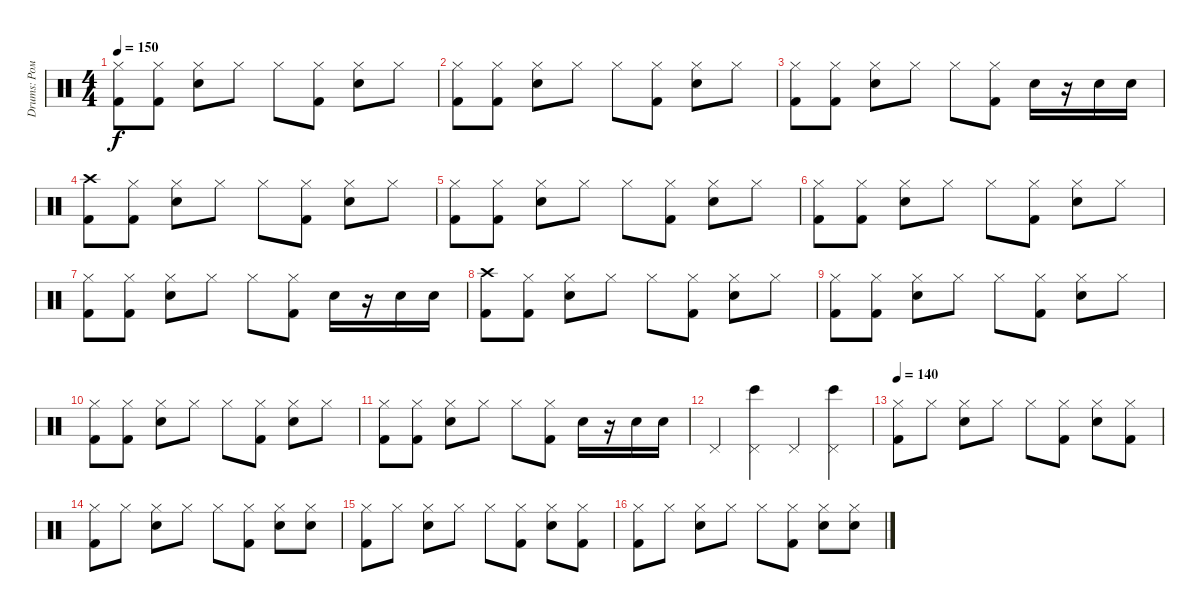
\track ("Drums: Рома" "Drums: Ром") {instrument percussion}
\staff {score}
\articulation defaults
\ts (4 4)
\tempo 150
\clef neutral
\ks c
("Hi-Hat (closed)" "Kick (hit) 2").8{dy f} ("Hi-Hat (closed)" "Kick (hit) 2").8 ("Hi-Hat (closed)" "Snare (hit) 2").8 "Hi-Hat (closed)".8 "Hi-Hat (closed)".8 ("Hi-Hat (closed)" "Kick (hit) 2").8 ("Hi-Hat (closed)" "Snare (hit) 2").8 "Hi-Hat (closed)".8 |
("Hi-Hat (closed)" "Kick (hit) 2").8 ("Hi-Hat (closed)" "Kick (hit) 2").8 ("Hi-Hat (closed)" "Snare (hit) 2").8 "Hi-Hat (closed)".8 "Hi-Hat (closed)".8 ("Hi-Hat (closed)" "Kick (hit) 2").8 ("Hi-Hat (closed)" "Snare (hit) 2").8 "Hi-Hat (closed)".8 |
("Hi-Hat (closed)" "Kick (hit) 2").8 ("Hi-Hat (closed)" "Kick (hit) 2").8 ("Hi-Hat (closed)" "Snare (hit) 2").8 "Hi-Hat (closed)".8 "Hi-Hat (closed)".8 ("Hi-Hat (closed)" "Kick (hit) 2").8 "Snare (hit) 2".16 r.16 "Snare (hit) 2".16 "Snare (hit) 2".16 |
("Crash high (hit)" "Kick (hit) 2").8 ("Hi-Hat (closed)" "Kick (hit) 2").8 ("Hi-Hat (closed)" "Snare (hit) 2").8 "Hi-Hat (closed)".8 "Hi-Hat (closed)".8 ("Hi-Hat (closed)" "Kick (hit) 2").8 ("Hi-Hat (closed)" "Snare (hit) 2").8 "Hi-Hat (closed)".8 |
("Hi-Hat (closed)" "Kick (hit) 2").8 ("Hi-Hat (closed)" "Kick (hit) 2").8 ("Hi-Hat (closed)" "Snare (hit) 2").8 "Hi-Hat (closed)".8 "Hi-Hat (closed)".8 ("Hi-Hat (closed)" "Kick (hit) 2").8 ("Hi-Hat (closed)" "Snare (hit) 2").8 "Hi-Hat (closed)".8 |
("Hi-Hat (closed)" "Kick (hit) 2").8 ("Hi-Hat (closed)" "Kick (hit) 2").8 ("Hi-Hat (closed)" "Snare (hit) 2").8 "Hi-Hat (closed)".8 "Hi-Hat (closed)".8 ("Hi-Hat (closed)" "Kick (hit) 2").8 ("Hi-Hat (closed)" "Snare (hit) 2").8 "Hi-Hat (closed)".8 |
("Hi-Hat (closed)" "Kick (hit) 2").8 ("Hi-Hat (closed)" "Kick (hit) 2").8 ("Hi-Hat (closed)" "Snare (hit) 2").8 "Hi-Hat (closed)".8 "Hi-Hat (closed)".8 ("Hi-Hat (closed)" "Kick (hit) 2").8 "Snare (hit) 2".16 r.16 "Snare (hit) 2".16 "Snare (hit) 2".16 |
("Crash high (hit)" "Kick (hit) 2").8 ("Hi-Hat (closed)" "Kick (hit) 2").8 ("Hi-Hat (closed)" "Snare (hit) 2").8 "Hi-Hat (closed)".8 "Hi-Hat (closed)".8 ("Hi-Hat (closed)" "Kick (hit) 2").8 ("Hi-Hat (closed)" "Snare (hit) 2").8 "Hi-Hat (closed)".8 |
("Hi-Hat (closed)" "Kick (hit) 2").8 ("Hi-Hat (closed)" "Kick (hit) 2").8 ("Hi-Hat (closed)" "Snare (hit) 2").8 "Hi-Hat (closed)".8 "Hi-Hat (closed)".8 ("Hi-Hat (closed)" "Kick (hit) 2").8 ("Hi-Hat (closed)" "Snare (hit) 2").8 "Hi-Hat (closed)".8 |
("Hi-Hat (closed)" "Kick (hit) 2").8 ("Hi-Hat (closed)" "Kick (hit) 2").8 ("Hi-Hat (closed)" "Snare (hit) 2").8 "Hi-Hat (closed)".8 "Hi-Hat (closed)".8 ("Hi-Hat (closed)" "Kick (hit) 2").8 ("Hi-Hat (closed)" "Snare (hit) 2").8 "Hi-Hat (closed)".8 |
("Hi-Hat (closed)" "Kick (hit) 2").8 ("Hi-Hat (closed)" "Kick (hit) 2").8 ("Hi-Hat (closed)" "Snare (hit) 2").8 "Hi-Hat (closed)".8 "Hi-Hat (closed)".8 ("Hi-Hat (closed)" "Kick (hit) 2").8 "Snare (hit) 2".16 r.16 "Snare (hit) 2".16 "Snare (hit) 2".16 |
"Pedal Hi-Hat (hit)".4 ("Bongo High (hit)" "Pedal Hi-Hat (hit)").4 "Pedal Hi-Hat (hit)".4 ("Bongo High (hit)" "Pedal Hi-Hat (hit)").4 |
\tempo 140
("Hi-Hat (closed)" "Kick (hit) 2").8 "Hi-Hat (closed)".8 ("Hi-Hat (closed)" "Snare (hit) 2").8 "Hi-Hat (closed)".8 "Hi-Hat (closed)".8 ("Hi-Hat (closed)" "Kick (hit) 2").8 ("Hi-Hat (closed)" "Snare (hit) 2").8 ("Hi-Hat (closed)" "Kick (hit) 2").8 |
("Hi-Hat (closed)" "Kick (hit) 2").8 "Hi-Hat (closed)".8 ("Hi-Hat (closed)" "Snare (hit) 2").8 "Hi-Hat (closed)".8 "Hi-Hat (closed)".8 ("Hi-Hat (closed)" "Kick (hit) 2").8 ("Hi-Hat (closed)" "Snare (hit) 2").8 ("Hi-Hat (closed)" "Snare (hit) 2").8 |
("Hi-Hat (closed)" "Kick (hit) 2").8 "Hi-Hat (closed)".8 ("Hi-Hat (closed)" "Snare (hit) 2").8 "Hi-Hat (closed)".8 "Hi-Hat (closed)".8 ("Hi-Hat (closed)" "Kick (hit) 2").8 ("Hi-Hat (closed)" "Snare (hit) 2").8 ("Hi-Hat (closed)" "Kick (hit) 2").8 |
("Hi-Hat (closed)" "Kick (hit) 2").8 "Hi-Hat (closed)".8 ("Hi-Hat (closed)" "Snare (hit) 2").8 "Hi-Hat (closed)".8 "Hi-Hat (closed)".8 ("Hi-Hat (closed)" "Kick (hit) 2").8 ("Hi-Hat (closed)" "Snare (hit) 2").8 ("Hi-Hat (closed)" "Snare (hit) 2").8
